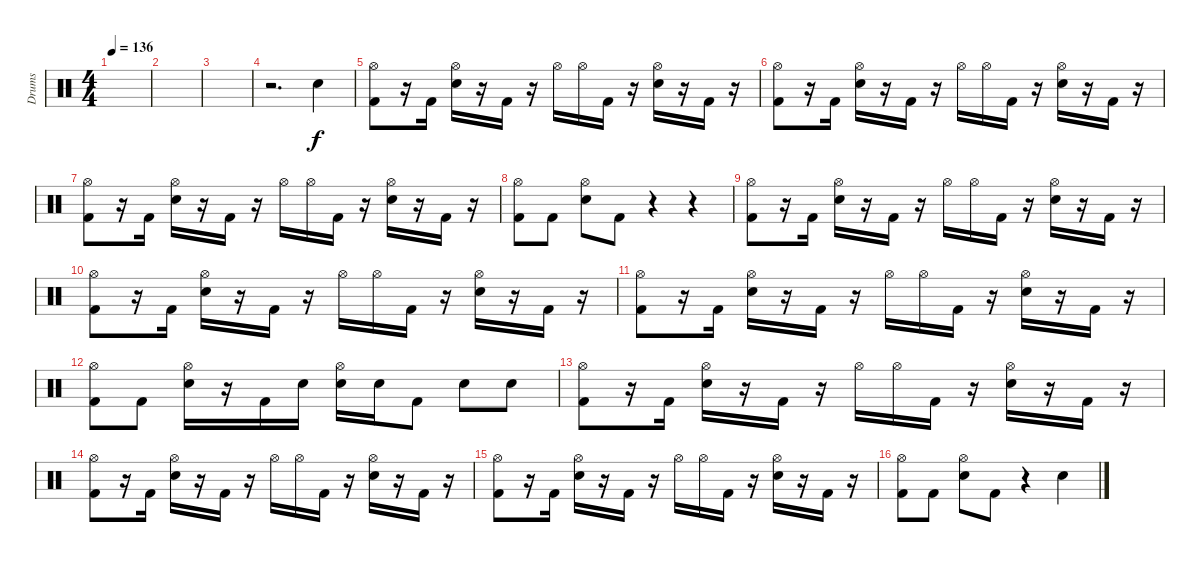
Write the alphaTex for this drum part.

\track ("Drums" "Drums") {instrument percussion}
\staff {score}
\articulation defaults
\ts (4 4)
\tempo 136
\clef neutral
\ks c
|
|
|
r.2{d} "Electric Snare (hit)".4 |
("Hi-Hat (open)" "Kick (hit) 2").8 r.16 "Kick (hit) 2".16 ("Hi-Hat (open)" "Electric Snare (hit)").16 r.16 "Kick (hit) 2".16 r.16 "Hi-Hat (open)".16 "Hi-Hat (open)".16 "Kick (hit) 2".16 r.16 ("Hi-Hat (open)" "Electric Snare (hit)").16 r.16 "Kick (hit) 2".16 r.16 |
("Hi-Hat (open)" "Kick (hit) 2").8 r.16 "Kick (hit) 2".16 ("Hi-Hat (open)" "Electric Snare (hit)").16 r.16 "Kick (hit) 2".16 r.16 "Hi-Hat (open)".16 "Hi-Hat (open)".16 "Kick (hit) 2".16 r.16 ("Hi-Hat (open)" "Electric Snare (hit)").16 r.16 "Kick (hit) 2".16 r.16 |
("Hi-Hat (open)" "Kick (hit) 2").8 r.16 "Kick (hit) 2".16 ("Hi-Hat (open)" "Electric Snare (hit)").16 r.16 "Kick (hit) 2".16 r.16 "Hi-Hat (open)".16 "Hi-Hat (open)".16 "Kick (hit) 2".16 r.16 ("Hi-Hat (open)" "Electric Snare (hit)").16 r.16 "Kick (hit) 2".16 r.16 |
("Hi-Hat (open)" "Kick (hit) 2").8 "Kick (hit) 2".8 ("Hi-Hat (open)" "Electric Snare (hit)").8 "Kick (hit) 2".8 r.4 r.4 |
("Hi-Hat (open)" "Kick (hit) 2").8 r.16 "Kick (hit) 2".16 ("Hi-Hat (open)" "Electric Snare (hit)").16 r.16 "Kick (hit) 2".16 r.16 "Hi-Hat (open)".16 "Hi-Hat (open)".16 "Kick (hit) 2".16 r.16 ("Hi-Hat (open)" "Electric Snare (hit)").16 r.16 "Kick (hit) 2".16 r.16 |
("Hi-Hat (open)" "Kick (hit) 2").8 r.16 "Kick (hit) 2".16 ("Hi-Hat (open)" "Electric Snare (hit)").16 r.16 "Kick (hit) 2".16 r.16 "Hi-Hat (open)".16 "Hi-Hat (open)".16 "Kick (hit) 2".16 r.16 ("Hi-Hat (open)" "Electric Snare (hit)").16 r.16 "Kick (hit) 2".16 r.16 |
("Hi-Hat (open)" "Kick (hit) 2").8 r.16 "Kick (hit) 2".16 ("Hi-Hat (open)" "Electric Snare (hit)").16 r.16 "Kick (hit) 2".16 r.16 "Hi-Hat (open)".16 "Hi-Hat (open)".16 "Kick (hit) 2".16 r.16 ("Hi-Hat (open)" "Electric Snare (hit)").16 r.16 "Kick (hit) 2".16 r.16 |
("Hi-Hat (open)" "Kick (hit) 2").8 "Kick (hit) 2".8 ("Hi-Hat (open)" "Electric Snare (hit)").16 r.16 "Kick (hit) 2".16 "Electric Snare (hit)".16 ("Hi-Hat (open)" "Electric Snare (hit)").16 "Electric Snare (hit)".16 "Kick (hit) 2".8 "Electric Snare (hit)".8 "Electric Snare (hit)".8 |
("Hi-Hat (open)" "Kick (hit) 2").8 r.16 "Kick (hit) 2".16 ("Hi-Hat (open)" "Electric Snare (hit)").16 r.16 "Kick (hit) 2".16 r.16 "Hi-Hat (open)".16 "Hi-Hat (open)".16 "Kick (hit) 2".16 r.16 ("Hi-Hat (open)" "Electric Snare (hit)").16 r.16 "Kick (hit) 2".16 r.16 |
("Hi-Hat (open)" "Kick (hit) 2").8 r.16 "Kick (hit) 2".16 ("Hi-Hat (open)" "Electric Snare (hit)").16 r.16 "Kick (hit) 2".16 r.16 "Hi-Hat (open)".16 "Hi-Hat (open)".16 "Kick (hit) 2".16 r.16 ("Hi-Hat (open)" "Electric Snare (hit)").16 r.16 "Kick (hit) 2".16 r.16 |
("Hi-Hat (open)" "Kick (hit) 2").8 r.16 "Kick (hit) 2".16 ("Hi-Hat (open)" "Electric Snare (hit)").16 r.16 "Kick (hit) 2".16 r.16 "Hi-Hat (open)".16 "Hi-Hat (open)".16 "Kick (hit) 2".16 r.16 ("Hi-Hat (open)" "Electric Snare (hit)").16 r.16 "Kick (hit) 2".16 r.16 |
("Hi-Hat (open)" "Kick (hit) 2").8 "Kick (hit) 2".8 ("Hi-Hat (open)" "Electric Snare (hit)").8 "Kick (hit) 2".8 r.4 "Electric Snare (hit)".4
